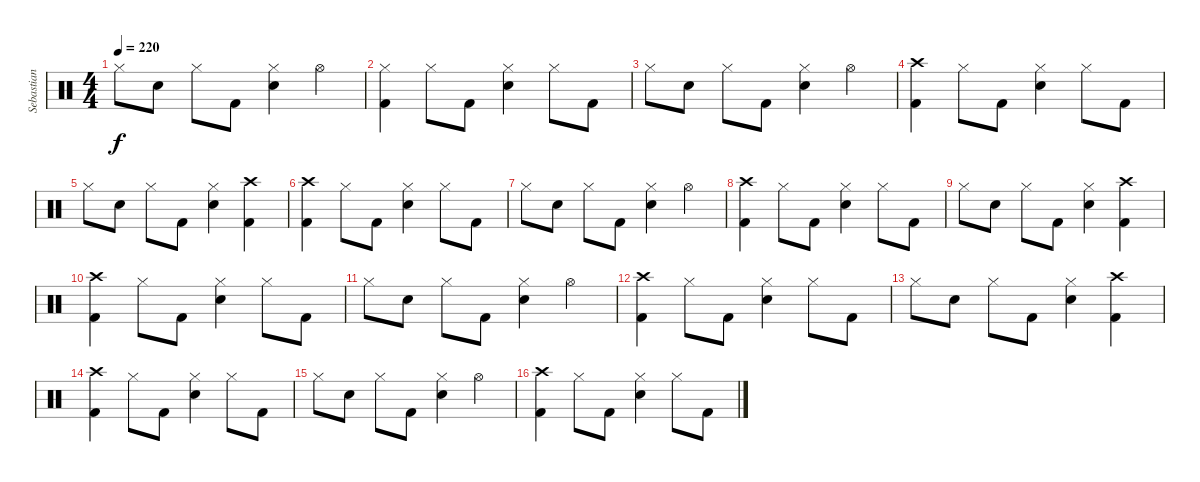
\track ("Sebastian" "Sebastian") {instrument percussion}
\staff {score}
\articulation defaults
\ts (4 4)
\tempo 220
\clef neutral
\ks c "Hi-Hat (closed)".8{dy f} "Snare (hit) 2".8 "Hi-Hat (closed)".8 "Kick (hit) 2".8
("Hi-Hat (closed)" "Snare (hit) 2").4 "Hi-Hat (open)".4 |
("Hi-Hat (closed)" "Kick (hit) 2").4 "Hi-Hat (closed)".8 "Kick (hit) 2".8 ("Hi-Hat (closed)" "Snare (hit) 2").4 "Hi-Hat (closed)".8 "Kick (hit) 2".8 |
"Hi-Hat (closed)".8 "Snare (hit) 2".8 "Hi-Hat (closed)".8 "Kick (hit) 2".8 ("Hi-Hat (closed)" "Snare (hit) 2").4 "Hi-Hat (open)".4 |
("Crash high (hit)" "Kick (hit) 2").4 "Hi-Hat (closed)".8 "Kick (hit) 2".8 ("Hi-Hat (closed)" "Snare (hit) 2").4 "Hi-Hat (closed)".8 "Kick (hit) 2".8 |
"Hi-Hat (closed)".8 "Snare (hit) 2".8 "Hi-Hat (closed)".8 "Kick (hit) 2".8 ("Hi-Hat (closed)" "Snare (hit) 2").4 ("Crash high (hit)" "Kick (hit) 2").4 |
("Crash high (hit)" "Kick (hit) 2").4 "Hi-Hat (closed)".8 "Kick (hit) 2".8 ("Hi-Hat (closed)" "Snare (hit) 2").4 "Hi-Hat (closed)".8 "Kick (hit) 2".8 |
"Hi-Hat (closed)".8 "Snare (hit) 2".8 "Hi-Hat (closed)".8 "Kick (hit) 2".8 ("Hi-Hat (closed)" "Snare (hit) 2").4 "Hi-Hat (open)".4 |
("Crash high (hit)" "Kick (hit) 2").4 "Hi-Hat (closed)".8 "Kick (hit) 2".8 ("Hi-Hat (closed)" "Snare (hit) 2").4 "Hi-Hat (closed)".8 "Kick (hit) 2".8 |
"Hi-Hat (closed)".8 "Snare (hit) 2".8 "Hi-Hat (closed)".8 "Kick (hit) 2".8 ("Hi-Hat (closed)" "Snare (hit) 2").4 ("Crash high (hit)" "Kick (hit) 2").4 |
("Crash high (hit)" "Kick (hit) 2").4 "Hi-Hat (closed)".8 "Kick (hit) 2".8 ("Hi-Hat (closed)" "Snare (hit) 2").4 "Hi-Hat (closed)".8 "Kick (hit) 2".8 |
"Hi-Hat (closed)".8 "Snare (hit) 2".8 "Hi-Hat (closed)".8 "Kick (hit) 2".8 ("Hi-Hat (closed)" "Snare (hit) 2").4 "Hi-Hat (open)".4 |
("Crash high (hit)" "Kick (hit) 2").4 "Hi-Hat (closed)".8 "Kick (hit) 2".8 ("Hi-Hat (closed)" "Snare (hit) 2").4 "Hi-Hat (closed)".8 "Kick (hit) 2".8 |
"Hi-Hat (closed)".8 "Snare (hit) 2".8 "Hi-Hat (closed)".8 "Kick (hit) 2".8 ("Hi-Hat (closed)" "Snare (hit) 2").4 ("Crash high (hit)" "Kick (hit) 2").4 |
("Crash high (hit)" "Kick (hit) 2").4 "Hi-Hat (closed)".8 "Kick (hit) 2".8 ("Hi-Hat (closed)" "Snare (hit) 2").4 "Hi-Hat (closed)".8 "Kick (hit) 2".8 |
"Hi-Hat (closed)".8 "Snare (hit) 2".8 "Hi-Hat (closed)".8 "Kick (hit) 2".8 ("Hi-Hat (closed)" "Snare (hit) 2").4 "Hi-Hat (open)".4 |
("Crash high (hit)" "Kick (hit) 2").4 "Hi-Hat (closed)".8 "Kick (hit) 2".8 ("Hi-Hat (closed)" "Snare (hit) 2").4 "Hi-Hat (closed)".8 "Kick (hit) 2".8
